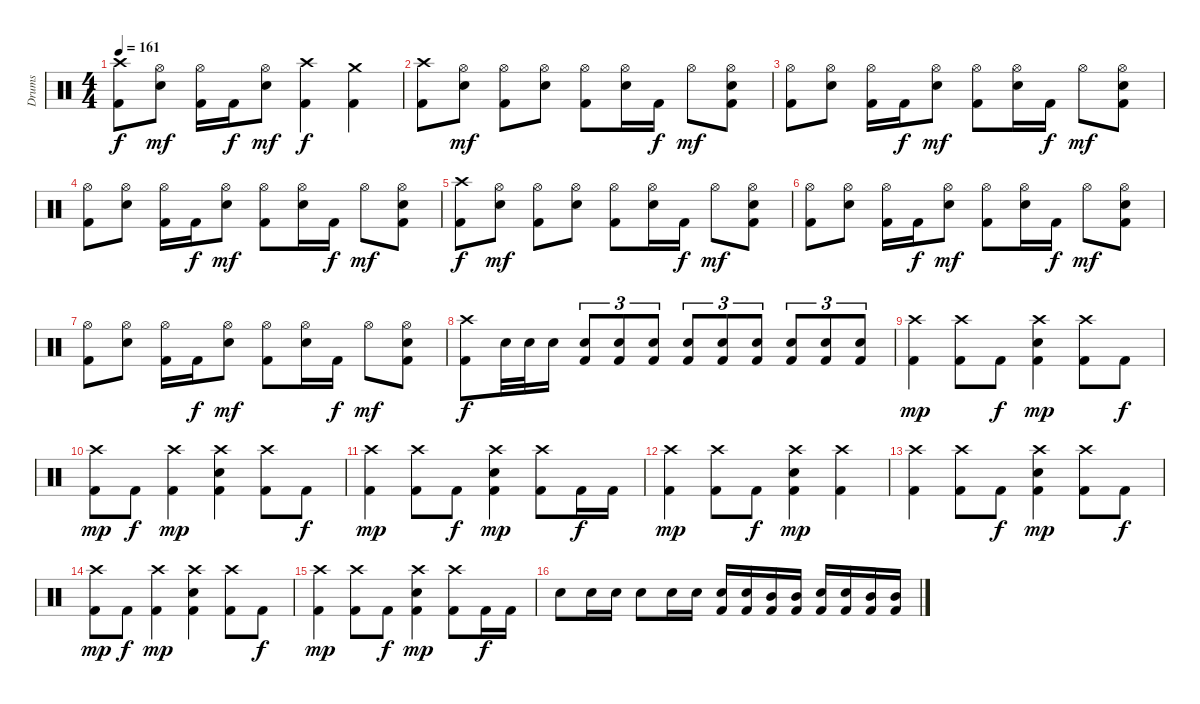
\track ("Drums" "Drums") {instrument percussion}
\staff {score}
\articulation defaults
\ts (4 4)
\tempo 161
\clef neutral
\ks c
("Crash high (hit)" "Kick (hit) 2").8{dy f} ("Hi-Hat (open)" "Electric Snare (hit)").8{dy mf} ("Hi-Hat (open)" "Kick (hit) 2").16 "Kick (hit) 2".16{dy f} ("Hi-Hat (open)" "Electric Snare (hit)").8{dy mf} ("Crash high (hit)" "Kick (hit) 2").4{dy f} ("Crash medium (hit)" "Kick (hit) 2").4 |
("Crash high (hit)" "Kick (hit) 2").8 ("Hi-Hat (open)" "Electric Snare (hit)").8{dy mf} ("Hi-Hat (open)" "Kick (hit) 2").8 ("Hi-Hat (open)" "Electric Snare (hit)").8 ("Hi-Hat (open)" "Kick (hit) 2").8 ("Hi-Hat (open)" "Electric Snare (hit)").16 "Kick (hit) 2".16{dy f} "Hi-Hat (open)".8{dy mf} ("Hi-Hat (open)" "Electric Snare (hit)" "Kick (hit) 2").8 |
("Hi-Hat (open)" "Kick (hit) 2").8 ("Hi-Hat (open)" "Electric Snare (hit)").8 ("Hi-Hat (open)" "Kick (hit) 2").16 "Kick (hit) 2".16{dy f} ("Hi-Hat (open)" "Electric Snare (hit)").8{dy mf} ("Hi-Hat (open)" "Kick (hit) 2").8 ("Hi-Hat (open)" "Electric Snare (hit)").16 "Kick (hit) 2".16{dy f} "Hi-Hat (open)".8{dy mf} ("Hi-Hat (open)" "Electric Snare (hit)" "Kick (hit) 2").8 |
("Hi-Hat (open)" "Kick (hit) 2").8 ("Hi-Hat (open)" "Electric Snare (hit)").8 ("Hi-Hat (open)" "Kick (hit) 2").16 "Kick (hit) 2".16{dy f} ("Hi-Hat (open)" "Electric Snare (hit)").8{dy mf} ("Hi-Hat (open)" "Kick (hit) 2").8 ("Hi-Hat (open)" "Electric Snare (hit)").16 "Kick (hit) 2".16{dy f} "Hi-Hat (open)".8{dy mf} ("Hi-Hat (open)" "Electric Snare (hit)" "Kick (hit) 2").8 |
("Crash high (hit)" "Kick (hit) 2").8{dy f} ("Hi-Hat (open)" "Electric Snare (hit)").8{dy mf} ("Hi-Hat (open)" "Kick (hit) 2").8 ("Hi-Hat (open)" "Electric Snare (hit)").8 ("Hi-Hat (open)" "Kick (hit) 2").8 ("Hi-Hat (open)" "Electric Snare (hit)").16 "Kick (hit) 2".16{dy f} "Hi-Hat (open)".8{dy mf} ("Hi-Hat (open)" "Electric Snare (hit)" "Kick (hit) 2").8 |
("Hi-Hat (open)" "Kick (hit) 2").8 ("Hi-Hat (open)" "Electric Snare (hit)").8 ("Hi-Hat (open)" "Kick (hit) 2").16 "Kick (hit) 2".16{dy f} ("Hi-Hat (open)" "Electric Snare (hit)").8{dy mf} ("Hi-Hat (open)" "Kick (hit) 2").8 ("Hi-Hat (open)" "Electric Snare (hit)").16 "Kick (hit) 2".16{dy f} "Hi-Hat (open)".8{dy mf} ("Hi-Hat (open)" "Electric Snare (hit)" "Kick (hit) 2").8 |
("Hi-Hat (open)" "Kick (hit) 2").8 ("Hi-Hat (open)" "Electric Snare (hit)").8 ("Hi-Hat (open)" "Kick (hit) 2").16 "Kick (hit) 2".16{dy f} ("Hi-Hat (open)" "Electric Snare (hit)").8{dy mf} ("Hi-Hat (open)" "Kick (hit) 2").8 ("Hi-Hat (open)" "Electric Snare (hit)").16 "Kick (hit) 2".16{dy f} "Hi-Hat (open)".8{dy mf} ("Hi-Hat (open)" "Electric Snare (hit)" "Kick (hit) 2").8 |
("Crash high (hit)" "Kick (hit) 2").8{dy f} "Electric Snare (hit)".32 "Electric Snare (hit)".32 "Electric Snare (hit)".16 ("Electric Snare (hit)" "Kick (hit) 2").8{tu (3 2)} ("Electric Snare (hit)" "Kick (hit) 2").8{tu (3 2)} ("Electric Snare (hit)" "Kick (hit) 2").8{tu (3 2)} ("Electric Snare (hit)" "Kick (hit) 2").8{tu (3 2)} ("Electric Snare (hit)" "Kick (hit) 2").8{tu (3 2)} ("Electric Snare (hit)" "Kick (hit) 2").8{tu (3 2)} ("Electric Snare (hit)" "Kick (hit) 2").8{tu (3 2)} ("Electric Snare (hit)" "Kick (hit) 2").8{tu (3 2)} ("Electric Snare (hit)" "Kick (hit) 2").8{tu (3 2)} |
("Crash high (hit)" "Kick (hit) 2").4{dy mp} ("Crash high (hit)" "Kick (hit) 2").8 "Kick (hit) 2".8{dy f} ("Crash high (hit)" "Electric Snare (hit)" "Kick (hit) 2").4{dy mp} ("Crash high (hit)" "Kick (hit) 2").8 "Kick (hit) 2".8{dy f} |
("Crash high (hit)" "Kick (hit) 2").8{dy mp} "Kick (hit) 2".8{dy f} ("Crash high (hit)" "Kick (hit) 2").4{dy mp} ("Crash high (hit)" "Electric Snare (hit)" "Kick (hit) 2").4 ("Crash high (hit)" "Kick (hit) 2").8 "Kick (hit) 2".8{dy f} |
("Crash high (hit)" "Kick (hit) 2").4{dy mp} ("Crash high (hit)" "Kick (hit) 2").8 "Kick (hit) 2".8{dy f} ("Crash high (hit)" "Electric Snare (hit)" "Kick (hit) 2").4{dy mp} ("Crash high (hit)" "Kick (hit) 2").8 "Kick (hit) 2".16{dy f} "Kick (hit) 2".16 |
("Crash high (hit)" "Kick (hit) 2").4{dy mp} ("Crash high (hit)" "Kick (hit) 2").8 "Kick (hit) 2".8{dy f} ("Crash high (hit)" "Electric Snare (hit)" "Kick (hit) 2").4{dy mp} ("Crash high (hit)" "Kick (hit) 2").4 |
("Crash high (hit)" "Kick (hit) 2").4 ("Crash high (hit)" "Kick (hit) 2").8 "Kick (hit) 2".8{dy f} ("Crash high (hit)" "Electric Snare (hit)" "Kick (hit) 2").4{dy mp} ("Crash high (hit)" "Kick (hit) 2").8 "Kick (hit) 2".8{dy f} |
("Crash high (hit)" "Kick (hit) 2").8{dy mp} "Kick (hit) 2".8{dy f} ("Crash high (hit)" "Kick (hit) 2").4{dy mp} ("Crash high (hit)" "Electric Snare (hit)" "Kick (hit) 2").4 ("Crash high (hit)" "Kick (hit) 2").8 "Kick (hit) 2".8{dy f} |
("Crash high (hit)" "Kick (hit) 2").4{dy mp} ("Crash high (hit)" "Kick (hit) 2").8 "Kick (hit) 2".8{dy f} ("Crash high (hit)" "Electric Snare (hit)" "Kick (hit) 2").4{dy mp} ("Crash high (hit)" "Kick (hit) 2").8 "Kick (hit) 2".16{dy f} "Kick (hit) 2".16 |
"Electric Snare (hit)".8 "Electric Snare (hit)".16 "Electric Snare (hit)".16 "Electric Snare (hit)".8 "Electric Snare (hit)".16 "Electric Snare (hit)".16 ("Electric Snare (hit)" "Kick (hit) 2").16 ("Electric Snare (hit)" "Kick (hit) 2").16 ("Mid Tom (hit)" "Kick (hit) 2").16 ("Mid Tom (hit)" "Kick (hit) 2").16 ("Electric Snare (hit)" "Kick (hit) 2").16 ("Electric Snare (hit)" "Kick (hit) 2").16 ("Mid Tom (hit)" "Kick (hit) 2").16 ("Mid Tom (hit)" "Kick (hit) 2").16
